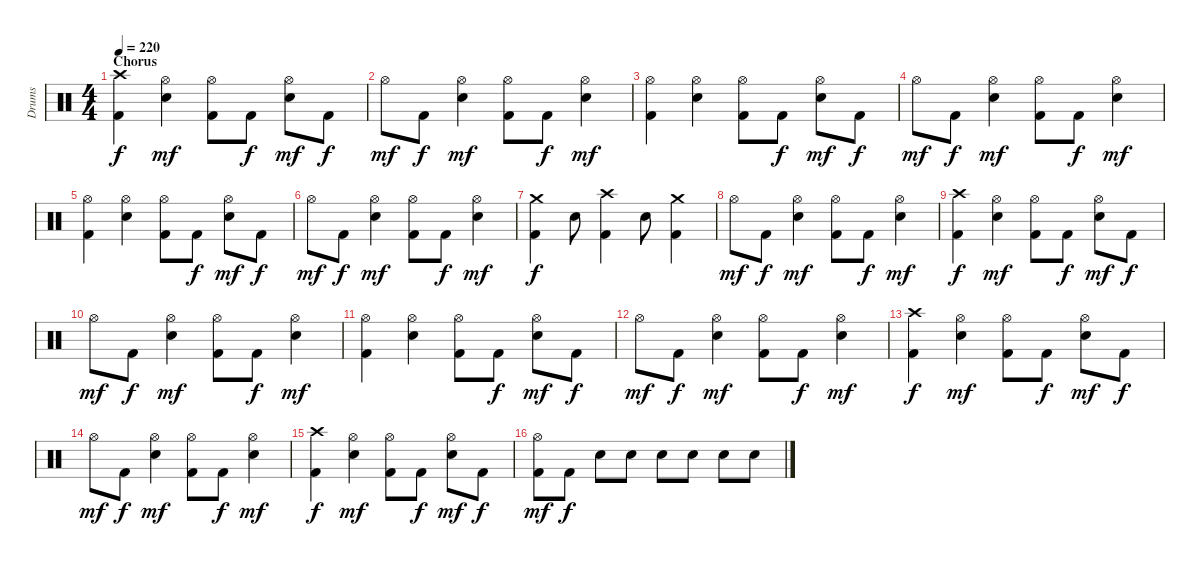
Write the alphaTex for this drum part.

\track ("Drums" "Drums") {instrument percussion}
\staff {score}
\articulation defaults
\ts (4 4)
\section ("" "Chorus")
\tempo 220
\clef neutral
\ks c
("Crash high (hit)" "Kick (hit) 2").4{dy f} ("Hi-Hat (open)" "Snare (hit) 2").4{dy mf} ("Hi-Hat (open)" "Kick (hit) 2").8 "Kick (hit) 2".8{dy f} ("Hi-Hat (open)" "Snare (hit) 2").8{dy mf} "Kick (hit) 2".8{dy f} |
"Hi-Hat (open)".8{dy mf} "Kick (hit) 2".8{dy f} ("Hi-Hat (open)" "Snare (hit) 2").4{dy mf} ("Hi-Hat (open)" "Kick (hit) 2").8 "Kick (hit) 2".8{dy f} ("Hi-Hat (open)" "Snare (hit) 2").4{dy mf} |
("Hi-Hat (open)" "Kick (hit) 2").4 ("Hi-Hat (open)" "Snare (hit) 2").4 ("Hi-Hat (open)" "Kick (hit) 2").8 "Kick (hit) 2".8{dy f} ("Hi-Hat (open)" "Snare (hit) 2").8{dy mf} "Kick (hit) 2".8{dy f} |
"Hi-Hat (open)".8{dy mf} "Kick (hit) 2".8{dy f} ("Hi-Hat (open)" "Snare (hit) 2").4{dy mf} ("Hi-Hat (open)" "Kick (hit) 2").8 "Kick (hit) 2".8{dy f} ("Hi-Hat (open)" "Snare (hit) 2").4{dy mf} |
("Hi-Hat (open)" "Kick (hit) 2").4 ("Hi-Hat (open)" "Snare (hit) 2").4 ("Hi-Hat (open)" "Kick (hit) 2").8 "Kick (hit) 2".8{dy f} ("Hi-Hat (open)" "Snare (hit) 2").8{dy mf} "Kick (hit) 2".8{dy f} |
"Hi-Hat (open)".8{dy mf} "Kick (hit) 2".8{dy f} ("Hi-Hat (open)" "Snare (hit) 2").4{dy mf} ("Hi-Hat (open)" "Kick (hit) 2").8 "Kick (hit) 2".8{dy f} ("Hi-Hat (open)" "Snare (hit) 2").4{dy mf} |
("Crash medium (hit)" "Kick (hit) 2").4{dy f} "Snare (hit) 2".8 ("Crash high (hit)" "Kick (hit) 2").4 "Snare (hit) 2".8 ("Crash medium (hit)" "Kick (hit) 2").4 |
"Hi-Hat (open)".8{dy mf} "Kick (hit) 2".8{dy f} ("Hi-Hat (open)" "Snare (hit) 2").4{dy mf} ("Hi-Hat (open)" "Kick (hit) 2").8 "Kick (hit) 2".8{dy f} ("Hi-Hat (open)" "Snare (hit) 2").4{dy mf} |
("Crash high (hit)" "Kick (hit) 2").4{dy f} ("Hi-Hat (open)" "Snare (hit) 2").4{dy mf} ("Hi-Hat (open)" "Kick (hit) 2").8 "Kick (hit) 2".8{dy f} ("Hi-Hat (open)" "Snare (hit) 2").8{dy mf} "Kick (hit) 2".8{dy f} |
"Hi-Hat (open)".8{dy mf} "Kick (hit) 2".8{dy f} ("Hi-Hat (open)" "Snare (hit) 2").4{dy mf} ("Hi-Hat (open)" "Kick (hit) 2").8 "Kick (hit) 2".8{dy f} ("Hi-Hat (open)" "Snare (hit) 2").4{dy mf} |
("Hi-Hat (open)" "Kick (hit) 2").4 ("Hi-Hat (open)" "Snare (hit) 2").4 ("Hi-Hat (open)" "Kick (hit) 2").8 "Kick (hit) 2".8{dy f} ("Hi-Hat (open)" "Snare (hit) 2").8{dy mf} "Kick (hit) 2".8{dy f} |
"Hi-Hat (open)".8{dy mf} "Kick (hit) 2".8{dy f} ("Hi-Hat (open)" "Snare (hit) 2").4{dy mf} ("Hi-Hat (open)" "Kick (hit) 2").8 "Kick (hit) 2".8{dy f} ("Hi-Hat (open)" "Snare (hit) 2").4{dy mf} |
("Crash high (hit)" "Kick (hit) 2").4{dy f} ("Hi-Hat (open)" "Snare (hit) 2").4{dy mf} ("Hi-Hat (open)" "Kick (hit) 2").8 "Kick (hit) 2".8{dy f} ("Hi-Hat (open)" "Snare (hit) 2").8{dy mf} "Kick (hit) 2".8{dy f} |
"Hi-Hat (open)".8{dy mf} "Kick (hit) 2".8{dy f} ("Hi-Hat (open)" "Snare (hit) 2").4{dy mf} ("Hi-Hat (open)" "Kick (hit) 2").8 "Kick (hit) 2".8{dy f} ("Hi-Hat (open)" "Snare (hit) 2").4{dy mf} |
("Crash high (hit)" "Kick (hit) 2").4{dy f} ("Hi-Hat (open)" "Snare (hit) 2").4{dy mf} ("Hi-Hat (open)" "Kick (hit) 2").8 "Kick (hit) 2".8{dy f} ("Hi-Hat (open)" "Snare (hit) 2").8{dy mf} "Kick (hit) 2".8{dy f} |
("Hi-Hat (open)" "Kick (hit) 2").8{dy mf} "Kick (hit) 2".8{dy f} "Snare (hit) 2".8 "Snare (hit) 2".8 "Snare (hit) 2".8 "Snare (hit) 2".8 "Snare (hit) 2".8 "Snare (hit) 2".8
